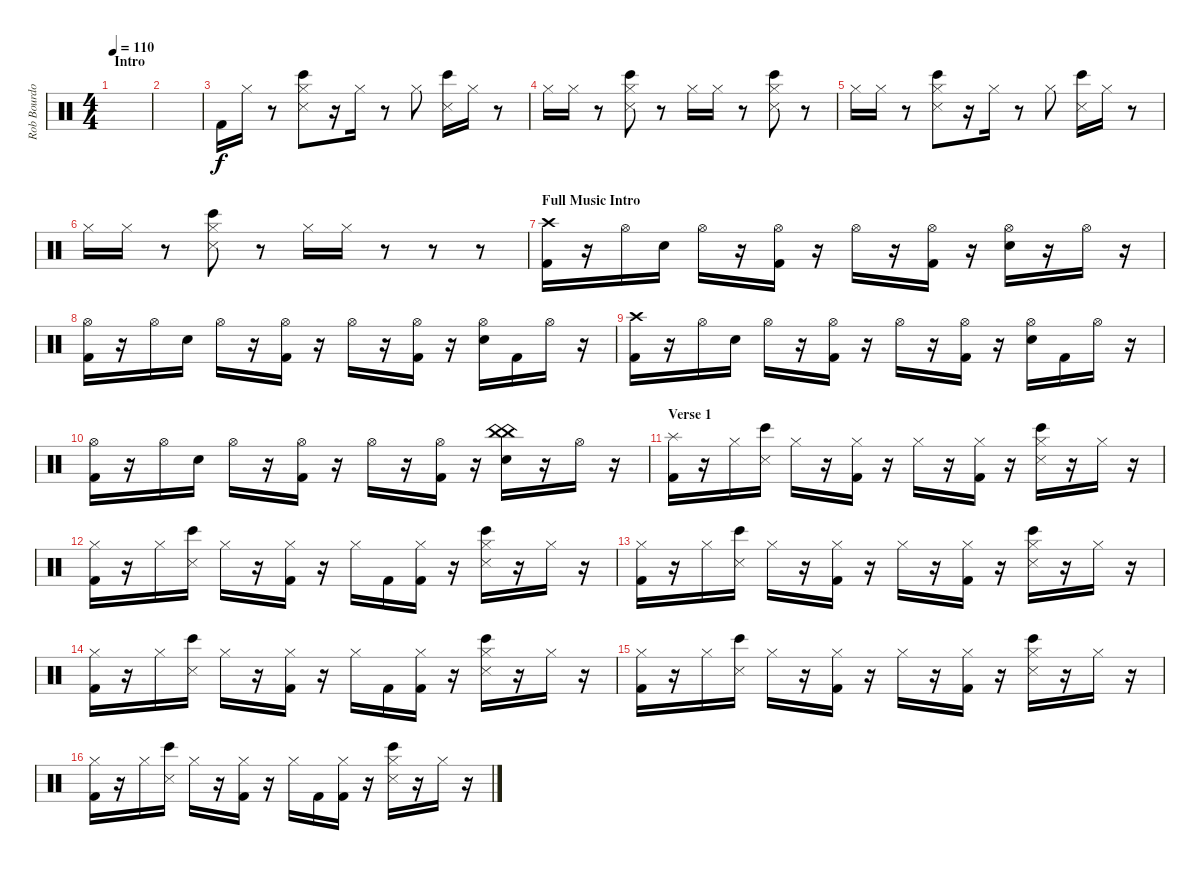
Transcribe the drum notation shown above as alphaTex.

\track ("Rob Bourdon (Drums)" "Rob Bourdo") {instrument percussion}
\staff {score}
\articulation defaults
\ts (4 4)
\section ("" "Intro")
\tempo 110
\clef neutral
\ks c
|
|
"Kick (hit) 2".16 "Hi-Hat (closed)".16 r.8 ("Hi-Hat (closed)" "Snare (side stick) 3" "Bongo High (hit)").8 r.16 "Hi-Hat (closed)".16 r.8 "Hi-Hat (closed)".8 ("Snare (side stick) 3" "Bongo High (hit)").16 "Hi-Hat (closed)".16 r.8 |
"Hi-Hat (closed)".16 "Hi-Hat (closed)".16 r.8 ("Hi-Hat (closed)" "Snare (side stick) 3" "Bongo High (hit)").8 r.8 "Hi-Hat (closed)".16 "Hi-Hat (closed)".16 r.8 ("Hi-Hat (closed)" "Snare (side stick) 3" "Bongo High (hit)").8 r.8 |
"Hi-Hat (closed)".16 "Hi-Hat (closed)".16 r.8 ("Hi-Hat (closed)" "Snare (side stick) 3" "Bongo High (hit)").8 r.16 "Hi-Hat (closed)".16 r.8 "Hi-Hat (closed)".8 ("Snare (side stick) 3" "Bongo High (hit)").16 "Hi-Hat (closed)".16 r.8 |
"Hi-Hat (closed)".16 "Hi-Hat (closed)".16 r.8 ("Hi-Hat (closed)" "Snare (side stick) 3" "Bongo High (hit)").8 r.8 "Hi-Hat (closed)".16 "Hi-Hat (closed)".16 r.8 r.8 r.8 |
\section ("" "Full Music Intro")
("Crash high (hit)" "Kick (hit) 2").16 r.16 "Hi-Hat (open)".16 "Electric Snare (hit)".16 "Hi-Hat (open)".16 r.16 ("Hi-Hat (open)" "Kick (hit) 2").16 r.16 "Hi-Hat (open)".16 r.16 ("Hi-Hat (open)" "Kick (hit) 2").16 r.16 ("Hi-Hat (open)" "Electric Snare (hit)").16 r.16 "Hi-Hat (open)".16 r.16 |
("Hi-Hat (open)" "Kick (hit) 2").16 r.16 "Hi-Hat (open)".16 "Electric Snare (hit)".16 "Hi-Hat (open)".16 r.16 ("Hi-Hat (open)" "Kick (hit) 2").16 r.16 "Hi-Hat (open)".16 r.16 ("Hi-Hat (open)" "Kick (hit) 2").16 r.16 ("Hi-Hat (open)" "Electric Snare (hit)").16 "Kick (hit) 2".16 "Hi-Hat (open)".16 r.16 |
("Crash high (hit)" "Kick (hit) 2").16 r.16 "Hi-Hat (open)".16 "Electric Snare (hit)".16 "Hi-Hat (open)".16 r.16 ("Hi-Hat (open)" "Kick (hit) 2").16 r.16 "Hi-Hat (open)".16 r.16 ("Hi-Hat (open)" "Kick (hit) 2").16 r.16 ("Hi-Hat (open)" "Electric Snare (hit)").16 "Kick (hit) 2".16 "Hi-Hat (open)".16 r.16 |
("Hi-Hat (open)" "Kick (hit) 2").16 r.16 "Hi-Hat (open)".16 "Electric Snare (hit)".16 "Hi-Hat (open)".16 r.16 ("Hi-Hat (open)" "Kick (hit) 2").16 r.16 "Hi-Hat (open)".16 r.16 ("Hi-Hat (open)" "Kick (hit) 2").16 r.16 ("China (hit)" "China (hit)" "Electric Snare (hit)").16 r.16 "Hi-Hat (open)".16 r.16 |
\section ("" "Verse 1")
("Splash (hit)" "Kick (hit) 2").16 r.16 "Hi-Hat (closed)".16 ("Snare (side stick) 3" "Bongo High (hit)").16 "Hi-Hat (closed)".16 r.16 ("Hi-Hat (closed)" "Kick (hit) 2").16 r.16 "Hi-Hat (closed)".16 r.16 ("Hi-Hat (closed)" "Kick (hit) 2").16 r.16 ("Hi-Hat (closed)" "Snare (side stick) 3" "Bongo High (hit)").16 r.16 "Hi-Hat (closed)".16 r.16 |
("Hi-Hat (closed)" "Kick (hit) 2").16 r.16 "Hi-Hat (closed)".16 ("Snare (side stick) 3" "Bongo High (hit)").16 "Hi-Hat (closed)".16 r.16 ("Hi-Hat (closed)" "Kick (hit) 2").16 r.16 "Hi-Hat (closed)".16 "Kick (hit) 2".16 ("Hi-Hat (closed)" "Kick (hit) 2").16 r.16 ("Hi-Hat (closed)" "Snare (side stick) 3" "Bongo High (hit)").16 r.16 "Hi-Hat (closed)".16 r.16 |
("Hi-Hat (closed)" "Kick (hit) 2").16 r.16 "Hi-Hat (closed)".16 ("Snare (side stick) 3" "Bongo High (hit)").16 "Hi-Hat (closed)".16 r.16 ("Hi-Hat (closed)" "Kick (hit) 2").16 r.16 "Hi-Hat (closed)".16 r.16 ("Hi-Hat (closed)" "Kick (hit) 2").16 r.16 ("Hi-Hat (closed)" "Snare (side stick) 3" "Bongo High (hit)").16 r.16 "Hi-Hat (closed)".16 r.16 |
("Hi-Hat (closed)" "Kick (hit) 2").16 r.16 "Hi-Hat (closed)".16 ("Snare (side stick) 3" "Bongo High (hit)").16 "Hi-Hat (closed)".16 r.16 ("Hi-Hat (closed)" "Kick (hit) 2").16 r.16 "Hi-Hat (closed)".16 "Kick (hit) 2".16 ("Hi-Hat (closed)" "Kick (hit) 2").16 r.16 ("Hi-Hat (closed)" "Snare (side stick) 3" "Bongo High (hit)").16 r.16 "Hi-Hat (closed)".16 r.16 |
("Hi-Hat (closed)" "Kick (hit) 2").16 r.16 "Hi-Hat (closed)".16 ("Snare (side stick) 3" "Bongo High (hit)").16 "Hi-Hat (closed)".16 r.16 ("Hi-Hat (closed)" "Kick (hit) 2").16 r.16 "Hi-Hat (closed)".16 r.16 ("Hi-Hat (closed)" "Kick (hit) 2").16 r.16 ("Hi-Hat (closed)" "Snare (side stick) 3" "Bongo High (hit)").16 r.16 "Hi-Hat (closed)".16 r.16 |
("Hi-Hat (closed)" "Kick (hit) 2").16 r.16 "Hi-Hat (closed)".16 ("Snare (side stick) 3" "Bongo High (hit)").16 "Hi-Hat (closed)".16 r.16 ("Hi-Hat (closed)" "Kick (hit) 2").16 r.16 "Hi-Hat (closed)".16 "Kick (hit) 2".16 ("Hi-Hat (closed)" "Kick (hit) 2").16 r.16 ("Hi-Hat (closed)" "Snare (side stick) 3" "Bongo High (hit)").16 r.16 "Hi-Hat (closed)".16 r.16
